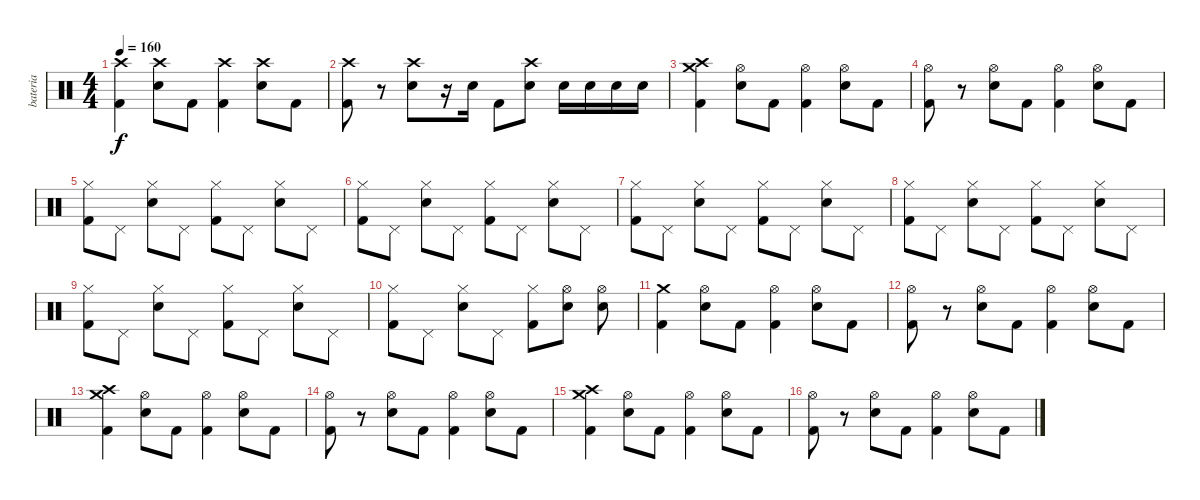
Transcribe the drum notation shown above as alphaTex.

\track ("bateria" "bateria") {instrument percussion}
\staff {score}
\articulation defaults
\ts (4 4)
\tempo 160
\clef neutral
\ks c
("Crash high (hit)" "Kick (hit) 2").4{dy f} ("Crash high (hit)" "Snare (hit) 2").8 "Kick (hit) 2".8 ("Crash high (hit)" "Kick (hit) 2").4 ("Crash high (hit)" "Snare (hit) 2").8 "Kick (hit) 2".8 |
("Crash high (hit)" "Kick (hit) 2").8 r.8 ("Crash high (hit)" "Snare (hit) 2").8 r.16 "Snare (hit) 2".16 "Kick (hit) 2".8 ("Crash high (hit)" "Snare (hit) 2").8 "Snare (hit) 2".16 "Snare (hit) 2".16 "Snare (hit) 2".16 "Snare (hit) 2".16 |
("Crash medium (hit)" "Crash high (hit)" "Kick (hit) 2").4 ("Hi-Hat (open)" "Snare (hit) 2").8 "Kick (hit) 2".8 ("Hi-Hat (open)" "Kick (hit) 2").4 ("Hi-Hat (open)" "Snare (hit) 2").8 "Kick (hit) 2".8 |
("Hi-Hat (open)" "Kick (hit) 2").8 r.8 ("Hi-Hat (open)" "Snare (hit) 2").8 "Kick (hit) 2".8 ("Hi-Hat (open)" "Kick (hit) 2").4 ("Hi-Hat (open)" "Snare (hit) 2").8 "Kick (hit) 2".8 |
("Hi-Hat (closed)" "Kick (hit) 2").8 "Pedal Hi-Hat (hit)".8 ("Hi-Hat (closed)" "Snare (hit) 2").8 "Pedal Hi-Hat (hit)".8 ("Hi-Hat (closed)" "Kick (hit) 2").8 "Pedal Hi-Hat (hit)".8 ("Hi-Hat (closed)" "Snare (hit) 2").8 "Pedal Hi-Hat (hit)".8 |
("Hi-Hat (closed)" "Kick (hit) 2").8 "Pedal Hi-Hat (hit)".8 ("Hi-Hat (closed)" "Snare (hit) 2").8 "Pedal Hi-Hat (hit)".8 ("Hi-Hat (closed)" "Kick (hit) 2").8 "Pedal Hi-Hat (hit)".8 ("Hi-Hat (closed)" "Snare (hit) 2").8 "Pedal Hi-Hat (hit)".8 |
("Hi-Hat (closed)" "Kick (hit) 2").8 "Pedal Hi-Hat (hit)".8 ("Hi-Hat (closed)" "Snare (hit) 2").8 "Pedal Hi-Hat (hit)".8 ("Hi-Hat (closed)" "Kick (hit) 2").8 "Pedal Hi-Hat (hit)".8 ("Hi-Hat (closed)" "Snare (hit) 2").8 "Pedal Hi-Hat (hit)".8 |
("Hi-Hat (closed)" "Kick (hit) 2").8 "Pedal Hi-Hat (hit)".8 ("Hi-Hat (closed)" "Snare (hit) 2").8 "Pedal Hi-Hat (hit)".8 ("Hi-Hat (closed)" "Kick (hit) 2").8 "Pedal Hi-Hat (hit)".8 ("Hi-Hat (closed)" "Snare (hit) 2").8 "Pedal Hi-Hat (hit)".8 |
("Hi-Hat (closed)" "Kick (hit) 2").8 "Pedal Hi-Hat (hit)".8 ("Hi-Hat (closed)" "Snare (hit) 2").8 "Pedal Hi-Hat (hit)".8 ("Hi-Hat (closed)" "Kick (hit) 2").8 "Pedal Hi-Hat (hit)".8 ("Hi-Hat (closed)" "Snare (hit) 2").8 "Pedal Hi-Hat (hit)".8 |
("Hi-Hat (closed)" "Kick (hit) 2").8 "Pedal Hi-Hat (hit)".8 ("Hi-Hat (closed)" "Snare (hit) 2").8 "Pedal Hi-Hat (hit)".8 ("Hi-Hat (closed)" "Kick (hit) 2").8 ("Hi-Hat (open)" "Snare (hit) 2").8 ("Hi-Hat (open)" "Snare (hit) 2").8 |
("Crash medium (hit)" "Kick (hit) 2").4 ("Hi-Hat (open)" "Snare (hit) 2").8 "Kick (hit) 2".8 ("Hi-Hat (open)" "Kick (hit) 2").4 ("Hi-Hat (open)" "Snare (hit) 2").8 "Kick (hit) 2".8 |
("Hi-Hat (open)" "Kick (hit) 2").8 r.8 ("Hi-Hat (open)" "Snare (hit) 2").8 "Kick (hit) 2".8 ("Hi-Hat (open)" "Kick (hit) 2").4 ("Hi-Hat (open)" "Snare (hit) 2").8 "Kick (hit) 2".8 |
("Crash medium (hit)" "Crash high (hit)" "Kick (hit) 2").4 ("Hi-Hat (open)" "Snare (hit) 2").8 "Kick (hit) 2".8 ("Hi-Hat (open)" "Kick (hit) 2").4 ("Hi-Hat (open)" "Snare (hit) 2").8 "Kick (hit) 2".8 |
("Hi-Hat (open)" "Kick (hit) 2").8 r.8 ("Hi-Hat (open)" "Snare (hit) 2").8 "Kick (hit) 2".8 ("Hi-Hat (open)" "Kick (hit) 2").4 ("Hi-Hat (open)" "Snare (hit) 2").8 "Kick (hit) 2".8 |
("Crash medium (hit)" "Crash high (hit)" "Kick (hit) 2").4 ("Hi-Hat (open)" "Snare (hit) 2").8 "Kick (hit) 2".8 ("Hi-Hat (open)" "Kick (hit) 2").4 ("Hi-Hat (open)" "Snare (hit) 2").8 "Kick (hit) 2".8 |
("Hi-Hat (open)" "Kick (hit) 2").8 r.8 ("Hi-Hat (open)" "Snare (hit) 2").8 "Kick (hit) 2".8 ("Hi-Hat (open)" "Kick (hit) 2").4 ("Hi-Hat (open)" "Snare (hit) 2").8 "Kick (hit) 2".8
